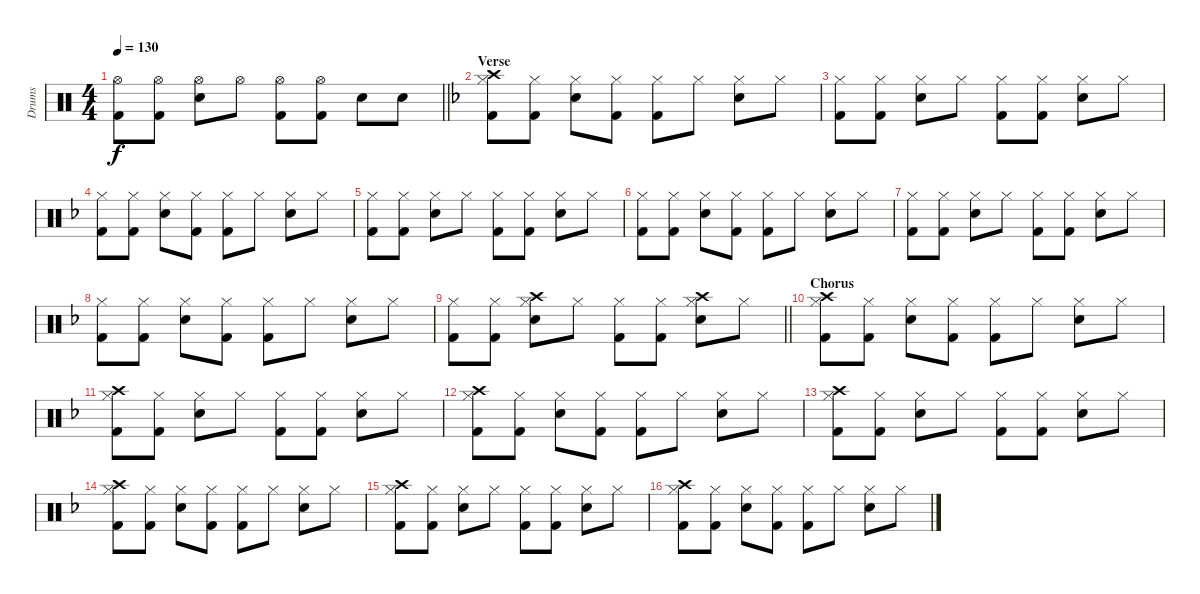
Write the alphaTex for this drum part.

\track ("Drums" "Drums") {instrument percussion}
\staff {score}
\articulation defaults
\ts (4 4)
\tempo 130
\clef neutral
\barLineRight lightlight
\ks c
("Hi-Hat (open)" "Kick (hit) 2").8{dy f} ("Hi-Hat (open)" "Kick (hit) 2").8 ("Hi-Hat (open)" "Snare (hit) 2").8 "Hi-Hat (open)".8 ("Hi-Hat (open)" "Kick (hit) 2").8 ("Hi-Hat (open)" "Kick (hit) 2").8 "Snare (hit) 2".8 "Snare (hit) 2".8 |
\section ("" "Verse")
\ks dminor
("Hi-Hat (closed)" "Kick (hit) 2" "Crash high (hit)").8 ("Hi-Hat (closed)" "Kick (hit) 2").8 ("Hi-Hat (closed)" "Snare (hit) 2").8 ("Hi-Hat (closed)" "Kick (hit) 2").8 ("Hi-Hat (closed)" "Kick (hit) 2").8 "Hi-Hat (closed)".8 ("Hi-Hat (closed)" "Snare (hit) 2").8 "Hi-Hat (closed)".8 |
("Hi-Hat (closed)" "Kick (hit) 2").8 ("Hi-Hat (closed)" "Kick (hit) 2").8 ("Hi-Hat (closed)" "Snare (hit) 2").8 "Hi-Hat (closed)".8 ("Hi-Hat (closed)" "Kick (hit) 2").8 ("Hi-Hat (closed)" "Kick (hit) 2").8 ("Hi-Hat (closed)" "Snare (hit) 2").8 "Hi-Hat (closed)".8 |
("Hi-Hat (closed)" "Kick (hit) 2").8 ("Hi-Hat (closed)" "Kick (hit) 2").8 ("Hi-Hat (closed)" "Snare (hit) 2").8 ("Hi-Hat (closed)" "Kick (hit) 2").8 ("Hi-Hat (closed)" "Kick (hit) 2").8 "Hi-Hat (closed)".8 ("Hi-Hat (closed)" "Snare (hit) 2").8 "Hi-Hat (closed)".8 |
("Hi-Hat (closed)" "Kick (hit) 2").8 ("Hi-Hat (closed)" "Kick (hit) 2").8 ("Hi-Hat (closed)" "Snare (hit) 2").8 "Hi-Hat (closed)".8 ("Hi-Hat (closed)" "Kick (hit) 2").8 ("Hi-Hat (closed)" "Kick (hit) 2").8 ("Hi-Hat (closed)" "Snare (hit) 2").8 "Hi-Hat (closed)".8 |
("Hi-Hat (closed)" "Kick (hit) 2").8 ("Hi-Hat (closed)" "Kick (hit) 2").8 ("Hi-Hat (closed)" "Snare (hit) 2").8 ("Hi-Hat (closed)" "Kick (hit) 2").8 ("Hi-Hat (closed)" "Kick (hit) 2").8 "Hi-Hat (closed)".8 ("Hi-Hat (closed)" "Snare (hit) 2").8 "Hi-Hat (closed)".8 |
("Hi-Hat (closed)" "Kick (hit) 2").8 ("Hi-Hat (closed)" "Kick (hit) 2").8 ("Hi-Hat (closed)" "Snare (hit) 2").8 "Hi-Hat (closed)".8 ("Hi-Hat (closed)" "Kick (hit) 2").8 ("Hi-Hat (closed)" "Kick (hit) 2").8 ("Hi-Hat (closed)" "Snare (hit) 2").8 "Hi-Hat (closed)".8 |
("Hi-Hat (closed)" "Kick (hit) 2").8 ("Hi-Hat (closed)" "Kick (hit) 2").8 ("Hi-Hat (closed)" "Snare (hit) 2").8 ("Hi-Hat (closed)" "Kick (hit) 2").8 ("Hi-Hat (closed)" "Kick (hit) 2").8 "Hi-Hat (closed)".8 ("Hi-Hat (closed)" "Snare (hit) 2").8 "Hi-Hat (closed)".8 |
\barLineRight lightlight
("Hi-Hat (closed)" "Kick (hit) 2").8 ("Hi-Hat (closed)" "Kick (hit) 2").8 ("Hi-Hat (closed)" "Snare (hit) 2" "Crash high (hit)").8 "Hi-Hat (closed)".8 ("Hi-Hat (closed)" "Kick (hit) 2").8 ("Hi-Hat (closed)" "Kick (hit) 2").8 ("Hi-Hat (closed)" "Snare (hit) 2" "Crash high (hit)").8 "Hi-Hat (closed)".8 |
\section ("" "Chorus")
("Hi-Hat (closed)" "Kick (hit) 2" "Crash high (hit)").8 ("Hi-Hat (closed)" "Kick (hit) 2").8 ("Hi-Hat (closed)" "Snare (hit) 2").8 ("Hi-Hat (closed)" "Kick (hit) 2").8 ("Hi-Hat (closed)" "Kick (hit) 2").8 "Hi-Hat (closed)".8 ("Hi-Hat (closed)" "Snare (hit) 2").8 "Hi-Hat (closed)".8 |
("Hi-Hat (closed)" "Kick (hit) 2" "Crash high (hit)").8 ("Hi-Hat (closed)" "Kick (hit) 2").8 ("Hi-Hat (closed)" "Snare (hit) 2").8 "Hi-Hat (closed)".8 ("Hi-Hat (closed)" "Kick (hit) 2").8 ("Hi-Hat (closed)" "Kick (hit) 2").8 ("Hi-Hat (closed)" "Snare (hit) 2").8 "Hi-Hat (closed)".8 |
("Hi-Hat (closed)" "Kick (hit) 2" "Crash high (hit)").8 ("Hi-Hat (closed)" "Kick (hit) 2").8 ("Hi-Hat (closed)" "Snare (hit) 2").8 ("Hi-Hat (closed)" "Kick (hit) 2").8 ("Hi-Hat (closed)" "Kick (hit) 2").8 "Hi-Hat (closed)".8 ("Hi-Hat (closed)" "Snare (hit) 2").8 "Hi-Hat (closed)".8 |
("Hi-Hat (closed)" "Kick (hit) 2" "Crash high (hit)").8 ("Hi-Hat (closed)" "Kick (hit) 2").8 ("Hi-Hat (closed)" "Snare (hit) 2").8 "Hi-Hat (closed)".8 ("Hi-Hat (closed)" "Kick (hit) 2").8 ("Hi-Hat (closed)" "Kick (hit) 2").8 ("Hi-Hat (closed)" "Snare (hit) 2").8 "Hi-Hat (closed)".8 |
("Hi-Hat (closed)" "Kick (hit) 2" "Crash high (hit)").8 ("Hi-Hat (closed)" "Kick (hit) 2").8 ("Hi-Hat (closed)" "Snare (hit) 2").8 ("Hi-Hat (closed)" "Kick (hit) 2").8 ("Hi-Hat (closed)" "Kick (hit) 2").8 "Hi-Hat (closed)".8 ("Hi-Hat (closed)" "Snare (hit) 2").8 "Hi-Hat (closed)".8 |
("Hi-Hat (closed)" "Kick (hit) 2" "Crash high (hit)").8 ("Hi-Hat (closed)" "Kick (hit) 2").8 ("Hi-Hat (closed)" "Snare (hit) 2").8 "Hi-Hat (closed)".8 ("Hi-Hat (closed)" "Kick (hit) 2").8 ("Hi-Hat (closed)" "Kick (hit) 2").8 ("Hi-Hat (closed)" "Snare (hit) 2").8 "Hi-Hat (closed)".8 |
("Hi-Hat (closed)" "Kick (hit) 2" "Crash high (hit)").8 ("Hi-Hat (closed)" "Kick (hit) 2").8 ("Hi-Hat (closed)" "Snare (hit) 2").8 ("Hi-Hat (closed)" "Kick (hit) 2").8 ("Hi-Hat (closed)" "Kick (hit) 2").8 "Hi-Hat (closed)".8 ("Hi-Hat (closed)" "Snare (hit) 2").8 "Hi-Hat (closed)".8
